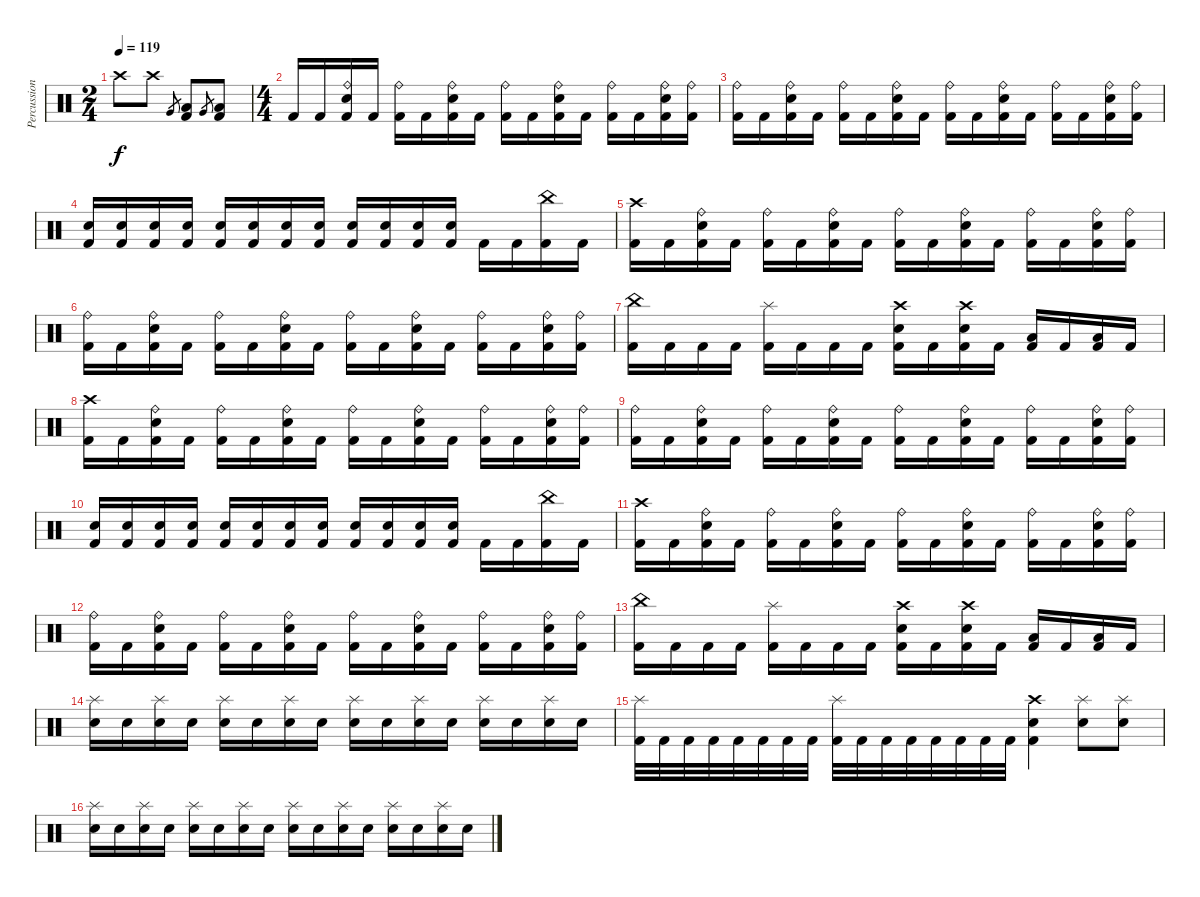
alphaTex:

\track ("Percussion" "Percussion") {instrument percussion}
\staff {score}
\articulation defaults
\ts (2 4)
\tempo 119
\clef neutral
\ks c "Crash high (hit)".8{dy f} "Crash high (hit)".8 "Very Low Tom (hit)".8{gr}
("Low Tom (hit)" "Kick (hit) 2").8 "Very Low Tom (hit)".8{gr} ("Low Tom (hit)" "Kick (hit) 2").8 |
\ts (4 4)
"Kick (hit) 2".16 "Kick (hit) 2".16 ("Ride (bell)" "Electric Snare (hit)" "Kick (hit) 2").16 "Kick (hit) 2".16 ("Ride (bell)" "Kick (hit) 2").16 "Kick (hit) 2".16 ("Ride (bell)" "Electric Snare (hit)" "Kick (hit) 2").16 "Kick (hit) 2".16 ("Ride (bell)" "Kick (hit) 2").16 "Kick (hit) 2".16 ("Ride (bell)" "Electric Snare (hit)" "Kick (hit) 2").16 "Kick (hit) 2".16 ("Ride (bell)" "Kick (hit) 2").16 "Kick (hit) 2".16 ("Ride (bell)" "Electric Snare (hit)" "Kick (hit) 2").16 ("Ride (bell)" "Kick (hit) 2").16 |
("Ride (bell)" "Kick (hit) 2").16 "Kick (hit) 2".16 ("Ride (bell)" "Electric Snare (hit)" "Kick (hit) 2").16 "Kick (hit) 2".16 ("Ride (bell)" "Kick (hit) 2").16 "Kick (hit) 2".16 ("Ride (bell)" "Electric Snare (hit)" "Kick (hit) 2").16 "Kick (hit) 2".16 ("Ride (bell)" "Kick (hit) 2").16 "Kick (hit) 2".16 ("Ride (bell)" "Electric Snare (hit)" "Kick (hit) 2").16 "Kick (hit) 2".16 ("Ride (bell)" "Kick (hit) 2").16 "Kick (hit) 2".16 ("Ride (bell)" "Electric Snare (hit)" "Kick (hit) 2").16 ("Ride (bell)" "Kick (hit) 2").16 |
("Electric Snare (hit)" "Kick (hit) 2").16 ("Electric Snare (hit)" "Kick (hit) 2").16 ("Electric Snare (hit)" "Kick (hit) 2").16 ("Electric Snare (hit)" "Kick (hit) 2").16 ("Electric Snare (hit)" "Kick (hit) 2").16 ("Electric Snare (hit)" "Kick (hit) 2").16 ("Electric Snare (hit)" "Kick (hit) 2").16 ("Electric Snare (hit)" "Kick (hit) 2").16 ("Electric Snare (hit)" "Kick (hit) 2").16 ("Electric Snare (hit)" "Kick (hit) 2").16 ("Electric Snare (hit)" "Kick (hit) 2").16 ("Electric Snare (hit)" "Kick (hit) 2").16 "Kick (hit) 2".16 "Kick (hit) 2".16 ("China (hit)" "Kick (hit) 2").16 "Kick (hit) 2".16 |
("Crash high (hit)" "Kick (hit) 2").16 "Kick (hit) 2".16 ("Ride (bell)" "Electric Snare (hit)" "Kick (hit) 2").16 "Kick (hit) 2".16 ("Ride (bell)" "Kick (hit) 2").16 "Kick (hit) 2".16 ("Ride (bell)" "Electric Snare (hit)" "Kick (hit) 2").16 "Kick (hit) 2".16 ("Ride (bell)" "Kick (hit) 2").16 "Kick (hit) 2".16 ("Ride (bell)" "Electric Snare (hit)" "Kick (hit) 2").16 "Kick (hit) 2".16 ("Ride (bell)" "Kick (hit) 2").16 "Kick (hit) 2".16 ("Ride (bell)" "Electric Snare (hit)" "Kick (hit) 2").16 ("Ride (bell)" "Kick (hit) 2").16 |
("Ride (bell)" "Kick (hit) 2").16 "Kick (hit) 2".16 ("Ride (bell)" "Electric Snare (hit)" "Kick (hit) 2").16 "Kick (hit) 2".16 ("Ride (bell)" "Kick (hit) 2").16 "Kick (hit) 2".16 ("Ride (bell)" "Electric Snare (hit)" "Kick (hit) 2").16 "Kick (hit) 2".16 ("Ride (bell)" "Kick (hit) 2").16 "Kick (hit) 2".16 ("Ride (bell)" "Electric Snare (hit)" "Kick (hit) 2").16 "Kick (hit) 2".16 ("Ride (bell)" "Kick (hit) 2").16 "Kick (hit) 2".16 ("Ride (bell)" "Electric Snare (hit)" "Kick (hit) 2").16 ("Ride (bell)" "Kick (hit) 2").16 |
("China (hit)" "Kick (hit) 2").16 "Kick (hit) 2".16 "Kick (hit) 2".16 "Kick (hit) 2".16 ("Splash (hit)" "Kick (hit) 2").16 "Kick (hit) 2".16 "Kick (hit) 2".16 "Kick (hit) 2".16 ("Crash high (hit)" "Electric Snare (hit)" "Kick (hit) 2").16 "Kick (hit) 2".16 ("Crash high (hit)" "Electric Snare (hit)" "Kick (hit) 2").16 "Kick (hit) 2".16 ("Low Tom (hit)" "Kick (hit) 2").16 "Kick (hit) 2".16 ("Low Tom (hit)" "Kick (hit) 2").16 "Kick (hit) 2".16 |
("Crash high (hit)" "Kick (hit) 2").16 "Kick (hit) 2".16 ("Ride (bell)" "Electric Snare (hit)" "Kick (hit) 2").16 "Kick (hit) 2".16 ("Ride (bell)" "Kick (hit) 2").16 "Kick (hit) 2".16 ("Ride (bell)" "Electric Snare (hit)" "Kick (hit) 2").16 "Kick (hit) 2".16 ("Ride (bell)" "Kick (hit) 2").16 "Kick (hit) 2".16 ("Ride (bell)" "Electric Snare (hit)" "Kick (hit) 2").16 "Kick (hit) 2".16 ("Ride (bell)" "Kick (hit) 2").16 "Kick (hit) 2".16 ("Ride (bell)" "Electric Snare (hit)" "Kick (hit) 2").16 ("Ride (bell)" "Kick (hit) 2").16 |
("Ride (bell)" "Kick (hit) 2").16 "Kick (hit) 2".16 ("Ride (bell)" "Electric Snare (hit)" "Kick (hit) 2").16 "Kick (hit) 2".16 ("Ride (bell)" "Kick (hit) 2").16 "Kick (hit) 2".16 ("Ride (bell)" "Electric Snare (hit)" "Kick (hit) 2").16 "Kick (hit) 2".16 ("Ride (bell)" "Kick (hit) 2").16 "Kick (hit) 2".16 ("Ride (bell)" "Electric Snare (hit)" "Kick (hit) 2").16 "Kick (hit) 2".16 ("Ride (bell)" "Kick (hit) 2").16 "Kick (hit) 2".16 ("Ride (bell)" "Electric Snare (hit)" "Kick (hit) 2").16 ("Ride (bell)" "Kick (hit) 2").16 |
("Electric Snare (hit)" "Kick (hit) 2").16 ("Electric Snare (hit)" "Kick (hit) 2").16 ("Electric Snare (hit)" "Kick (hit) 2").16 ("Electric Snare (hit)" "Kick (hit) 2").16 ("Electric Snare (hit)" "Kick (hit) 2").16 ("Electric Snare (hit)" "Kick (hit) 2").16 ("Electric Snare (hit)" "Kick (hit) 2").16 ("Electric Snare (hit)" "Kick (hit) 2").16 ("Electric Snare (hit)" "Kick (hit) 2").16 ("Electric Snare (hit)" "Kick (hit) 2").16 ("Electric Snare (hit)" "Kick (hit) 2").16 ("Electric Snare (hit)" "Kick (hit) 2").16 "Kick (hit) 2".16 "Kick (hit) 2".16 ("China (hit)" "Kick (hit) 2").16 "Kick (hit) 2".16 |
("Crash high (hit)" "Kick (hit) 2").16 "Kick (hit) 2".16 ("Ride (bell)" "Electric Snare (hit)" "Kick (hit) 2").16 "Kick (hit) 2".16 ("Ride (bell)" "Kick (hit) 2").16 "Kick (hit) 2".16 ("Ride (bell)" "Electric Snare (hit)" "Kick (hit) 2").16 "Kick (hit) 2".16 ("Ride (bell)" "Kick (hit) 2").16 "Kick (hit) 2".16 ("Ride (bell)" "Electric Snare (hit)" "Kick (hit) 2").16 "Kick (hit) 2".16 ("Ride (bell)" "Kick (hit) 2").16 "Kick (hit) 2".16 ("Ride (bell)" "Electric Snare (hit)" "Kick (hit) 2").16 ("Ride (bell)" "Kick (hit) 2").16 |
("Ride (bell)" "Kick (hit) 2").16 "Kick (hit) 2".16 ("Ride (bell)" "Electric Snare (hit)" "Kick (hit) 2").16 "Kick (hit) 2".16 ("Ride (bell)" "Kick (hit) 2").16 "Kick (hit) 2".16 ("Ride (bell)" "Electric Snare (hit)" "Kick (hit) 2").16 "Kick (hit) 2".16 ("Ride (bell)" "Kick (hit) 2").16 "Kick (hit) 2".16 ("Ride (bell)" "Electric Snare (hit)" "Kick (hit) 2").16 "Kick (hit) 2".16 ("Ride (bell)" "Kick (hit) 2").16 "Kick (hit) 2".16 ("Ride (bell)" "Electric Snare (hit)" "Kick (hit) 2").16 ("Ride (bell)" "Kick (hit) 2").16 |
("China (hit)" "Kick (hit) 2").16 "Kick (hit) 2".16 "Kick (hit) 2".16 "Kick (hit) 2".16 ("Splash (hit)" "Kick (hit) 2").16 "Kick (hit) 2".16 "Kick (hit) 2".16 "Kick (hit) 2".16 ("Crash high (hit)" "Electric Snare (hit)" "Kick (hit) 2").16 "Kick (hit) 2".16 ("Crash high (hit)" "Electric Snare (hit)" "Kick (hit) 2").16 "Kick (hit) 2".16 ("Low Tom (hit)" "Kick (hit) 2").16 "Kick (hit) 2".16 ("Low Tom (hit)" "Kick (hit) 2").16 "Kick (hit) 2".16 |
("Splash (hit)" "Electric Snare (hit)").16 "Electric Snare (hit)".16 ("Splash (hit)" "Electric Snare (hit)").16 "Electric Snare (hit)".16 ("Splash (hit)" "Electric Snare (hit)").16 "Electric Snare (hit)".16 ("Splash (hit)" "Electric Snare (hit)").16 "Electric Snare (hit)".16 ("Splash (hit)" "Electric Snare (hit)").16 "Electric Snare (hit)".16 ("Splash (hit)" "Electric Snare (hit)").16 "Electric Snare (hit)".16 ("Splash (hit)" "Electric Snare (hit)").16 "Electric Snare (hit)".16 ("Splash (hit)" "Electric Snare (hit)").16 "Electric Snare (hit)".16 |
("Splash (hit)" "Kick (hit) 2").32 "Kick (hit) 2".32 "Kick (hit) 2".32 "Kick (hit) 2".32 "Kick (hit) 2".32 "Kick (hit) 2".32 "Kick (hit) 2".32 "Kick (hit) 2".32 ("Splash (hit)" "Kick (hit) 2").32 "Kick (hit) 2".32 "Kick (hit) 2".32 "Kick (hit) 2".32 "Kick (hit) 2".32 "Kick (hit) 2".32 "Kick (hit) 2".32 "Kick (hit) 2".32 ("Crash high (hit)" "Electric Snare (hit)" "Kick (hit) 2").4 ("Splash (hit)" "Electric Snare (hit)").8 ("Splash (hit)" "Electric Snare (hit)").8 |
("Splash (hit)" "Electric Snare (hit)").16 "Electric Snare (hit)".16 ("Splash (hit)" "Electric Snare (hit)").16 "Electric Snare (hit)".16 ("Splash (hit)" "Electric Snare (hit)").16 "Electric Snare (hit)".16 ("Splash (hit)" "Electric Snare (hit)").16 "Electric Snare (hit)".16 ("Splash (hit)" "Electric Snare (hit)").16 "Electric Snare (hit)".16 ("Splash (hit)" "Electric Snare (hit)").16 "Electric Snare (hit)".16 ("Splash (hit)" "Electric Snare (hit)").16 "Electric Snare (hit)".16 ("Splash (hit)" "Electric Snare (hit)").16 "Electric Snare (hit)".16
